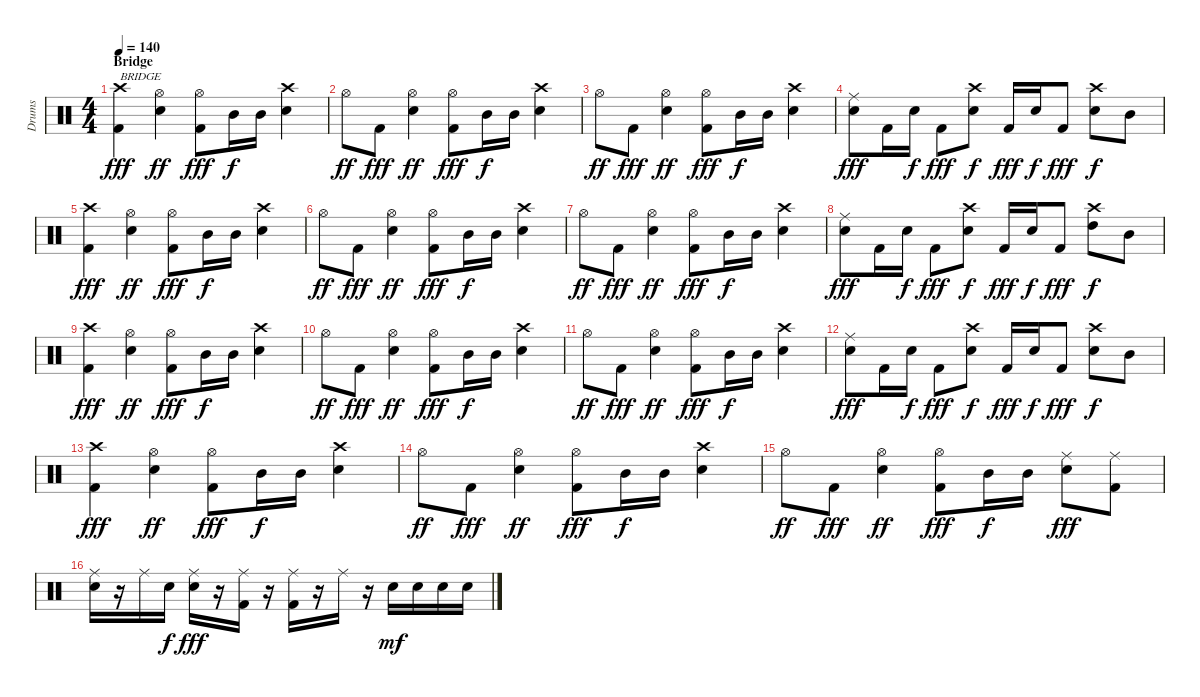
\track ("Drums" "Drums") {instrument percussion}
\staff {score}
\articulation defaults
\ts (4 4)
\section ("" "Bridge")
\tempo 140
\clef neutral
\ks c
("Crash high (hit)" "Kick (hit) 2").4{txt "BRIDGE" dy fff} ("Hi-Hat (open)" "Snare (hit) 2").4{dy ff} ("Hi-Hat (open)" "Kick (hit) 2").8{dy fff} "Mid Tom (hit)".16{dy f} "Mid Tom (hit)".16 ("Crash high (hit)" "Snare (hit) 2").4 |
"Hi-Hat (open)".8{dy ff} "Kick (hit) 2".8{dy fff} ("Hi-Hat (open)" "Snare (hit) 2").4{dy ff} ("Hi-Hat (open)" "Kick (hit) 2").8{dy fff} "Mid Tom (hit)".16{dy f} "Mid Tom (hit)".16 ("Crash high (hit)" "Snare (hit) 2").4 |
"Hi-Hat (open)".8{dy ff} "Kick (hit) 2".8{dy fff} ("Hi-Hat (open)" "Snare (hit) 2").4{dy ff} ("Hi-Hat (open)" "Kick (hit) 2").8{dy fff} "Mid Tom (hit)".16{dy f} "Mid Tom (hit)".16 ("Crash high (hit)" "Snare (hit) 2").4 |
("Ride (middle)" "Snare (hit) 2").8{dy fff} "Kick (hit) 2".16 "Snare (hit) 2".16{dy f} "Kick (hit) 2".8{dy fff} ("Crash high (hit)" "Snare (hit) 2").8{dy f} "Kick (hit) 2".16{dy fff} "Snare (hit) 2".16{dy f} "Kick (hit) 2".8{dy fff} ("Crash high (hit)" "Snare (hit) 2").8{dy f} "Mid Tom (hit)".8 |
("Crash high (hit)" "Kick (hit) 2").4{dy fff} ("Hi-Hat (open)" "Snare (hit) 2").4{dy ff} ("Hi-Hat (open)" "Kick (hit) 2").8{dy fff} "Mid Tom (hit)".16{dy f} "Mid Tom (hit)".16 ("Crash high (hit)" "Snare (hit) 2").4 |
"Hi-Hat (open)".8{dy ff} "Kick (hit) 2".8{dy fff} ("Hi-Hat (open)" "Snare (hit) 2").4{dy ff} ("Hi-Hat (open)" "Kick (hit) 2").8{dy fff} "Mid Tom (hit)".16{dy f} "Mid Tom (hit)".16 ("Crash high (hit)" "Snare (hit) 2").4 |
"Hi-Hat (open)".8{dy ff} "Kick (hit) 2".8{dy fff} ("Hi-Hat (open)" "Snare (hit) 2").4{dy ff} ("Hi-Hat (open)" "Kick (hit) 2").8{dy fff} "Mid Tom (hit)".16{dy f} "Mid Tom (hit)".16 ("Crash high (hit)" "Snare (hit) 2").4 |
("Ride (middle)" "Snare (hit) 2").8{dy fff} "Kick (hit) 2".16 "Snare (hit) 2".16{dy f} "Kick (hit) 2".8{dy fff} ("Crash high (hit)" "Snare (hit) 2").8{dy f} "Kick (hit) 2".16{dy fff} "Snare (hit) 2".16{dy f} "Kick (hit) 2".8{dy fff} ("Crash high (hit)" "High Tom (hit)").8{dy f} "Mid Tom (hit)".8 |
("Crash high (hit)" "Kick (hit) 2").4{dy fff} ("Hi-Hat (open)" "Snare (hit) 2").4{dy ff} ("Hi-Hat (open)" "Kick (hit) 2").8{dy fff} "Mid Tom (hit)".16{dy f} "Mid Tom (hit)".16 ("Crash high (hit)" "Snare (hit) 2").4 |
"Hi-Hat (open)".8{dy ff} "Kick (hit) 2".8{dy fff} ("Hi-Hat (open)" "Snare (hit) 2").4{dy ff} ("Hi-Hat (open)" "Kick (hit) 2").8{dy fff} "Mid Tom (hit)".16{dy f} "Mid Tom (hit)".16 ("Crash high (hit)" "Snare (hit) 2").4 |
"Hi-Hat (open)".8{dy ff} "Kick (hit) 2".8{dy fff} ("Hi-Hat (open)" "Snare (hit) 2").4{dy ff} ("Hi-Hat (open)" "Kick (hit) 2").8{dy fff} "Mid Tom (hit)".16{dy f} "Mid Tom (hit)".16 ("Crash high (hit)" "Snare (hit) 2").4 |
("Ride (middle)" "Snare (hit) 2").8{dy fff} "Kick (hit) 2".16 "Snare (hit) 2".16{dy f} "Kick (hit) 2".8{dy fff} ("Crash high (hit)" "Snare (hit) 2").8{dy f} "Kick (hit) 2".16{dy fff} "Snare (hit) 2".16{dy f} "Kick (hit) 2".8{dy fff} ("Crash high (hit)" "Snare (hit) 2").8{dy f} "Mid Tom (hit)".8 |
("Crash high (hit)" "Kick (hit) 2").4{dy fff} ("Hi-Hat (open)" "Snare (hit) 2").4{dy ff} ("Hi-Hat (open)" "Kick (hit) 2").8{dy fff} "Mid Tom (hit)".16{dy f} "Mid Tom (hit)".16 ("Crash high (hit)" "Snare (hit) 2").4 |
"Hi-Hat (open)".8{dy ff} "Kick (hit) 2".8{dy fff} ("Hi-Hat (open)" "Snare (hit) 2").4{dy ff} ("Hi-Hat (open)" "Kick (hit) 2").8{dy fff} "Mid Tom (hit)".16{dy f} "Mid Tom (hit)".16 ("Crash high (hit)" "Snare (hit) 2").4 |
"Hi-Hat (open)".8{dy ff} "Kick (hit) 2".8{dy fff} ("Hi-Hat (open)" "Snare (hit) 2").4{dy ff} ("Hi-Hat (open)" "Kick (hit) 2").8{dy fff} "Mid Tom (hit)".16{dy f} "Mid Tom (hit)".16 ("Ride (middle)" "Snare (hit) 2").8{dy fff} ("Ride (middle)" "Kick (hit) 2").8 |
("Ride (middle)" "Snare (hit) 2").16 r.16 "Ride (middle)".16 "Snare (hit) 2".16{dy f} ("Ride (middle)" "Snare (hit) 2").16{dy fff} r.16 ("Ride (middle)" "Kick (hit) 2").16 r.16 ("Ride (middle)" "Kick (hit) 2").16 r.16 "Ride (middle)".16 r.16 "Snare (hit) 2".16{dy mf} "Snare (hit) 2".16 "Snare (hit) 2".16 "Snare (hit) 2".16
